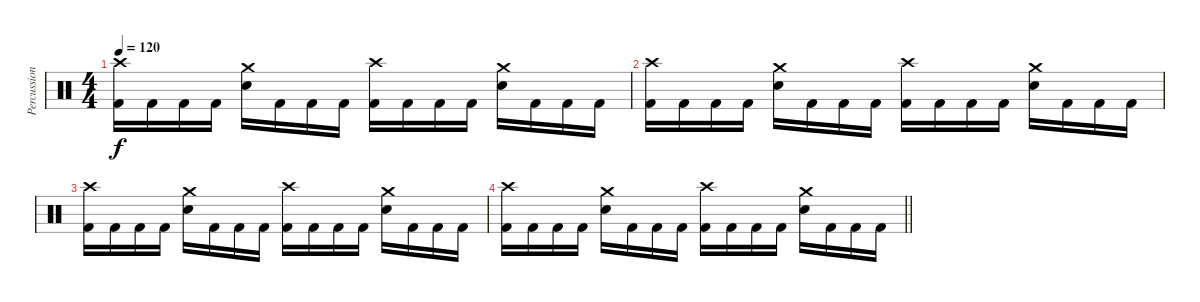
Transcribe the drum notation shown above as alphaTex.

\track ("Percussion" "Percussion") {instrument percussion}
\staff {score}
\articulation defaults
\ts (4 4)
\tempo 120
\clef neutral
\ks c
("Crash high (hit)" "Kick (hit) 2").16{dy f} "Kick (hit) 2".16 "Kick (hit) 2".16 "Kick (hit) 2".16 ("Crash medium (hit)" "Electric Snare (hit)").16 "Kick (hit) 2".16 "Kick (hit) 2".16 "Kick (hit) 2".16 ("Crash high (hit)" "Kick (hit) 2").16 "Kick (hit) 2".16 "Kick (hit) 2".16 "Kick (hit) 2".16 ("Crash medium (hit)" "Electric Snare (hit)").16 "Kick (hit) 2".16 "Kick (hit) 2".16 "Kick (hit) 2".16 |
("Crash high (hit)" "Kick (hit) 2").16 "Kick (hit) 2".16 "Kick (hit) 2".16 "Kick (hit) 2".16 ("Crash medium (hit)" "Electric Snare (hit)").16 "Kick (hit) 2".16 "Kick (hit) 2".16 "Kick (hit) 2".16 ("Crash high (hit)" "Kick (hit) 2").16 "Kick (hit) 2".16 "Kick (hit) 2".16 "Kick (hit) 2".16 ("Crash medium (hit)" "Electric Snare (hit)").16 "Kick (hit) 2".16 "Kick (hit) 2".16 "Kick (hit) 2".16 |
("Crash high (hit)" "Kick (hit) 2").16 "Kick (hit) 2".16 "Kick (hit) 2".16 "Kick (hit) 2".16 ("Crash medium (hit)" "Electric Snare (hit)").16 "Kick (hit) 2".16 "Kick (hit) 2".16 "Kick (hit) 2".16 ("Crash high (hit)" "Kick (hit) 2").16 "Kick (hit) 2".16 "Kick (hit) 2".16 "Kick (hit) 2".16 ("Crash medium (hit)" "Electric Snare (hit)").16 "Kick (hit) 2".16 "Kick (hit) 2".16 "Kick (hit) 2".16 |
\barLineRight lightlight
("Crash high (hit)" "Kick (hit) 2").16 "Kick (hit) 2".16 "Kick (hit) 2".16 "Kick (hit) 2".16 ("Crash medium (hit)" "Electric Snare (hit)").16 "Kick (hit) 2".16 "Kick (hit) 2".16 "Kick (hit) 2".16 ("Crash high (hit)" "Kick (hit) 2").16 "Kick (hit) 2".16 "Kick (hit) 2".16 "Kick (hit) 2".16 ("Crash medium (hit)" "Electric Snare (hit)").16 "Kick (hit) 2".16 "Kick (hit) 2".16 "Kick (hit) 2".16
